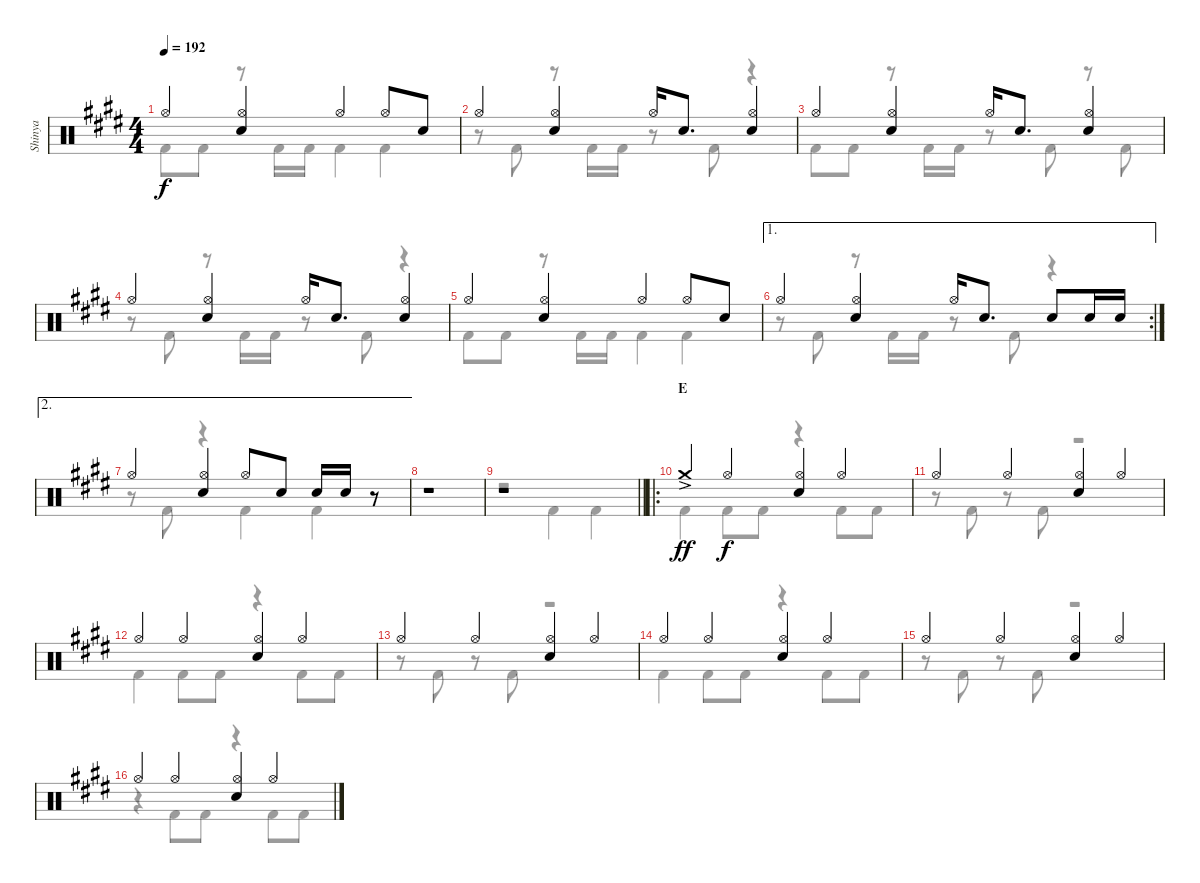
\track ("Shinya" "Shinya") {instrument percussion}
\staff {score}
\articulation defaults
\voice
\ts (4 4)
\tempo 192
\clef neutral
\ks c#minor "Hi-Hat (open)".4{dy f}
("Hi-Hat (open)" "Snare (hit) 2").4 "Hi-Hat (open)".4 "Hi-Hat (open)".8 "Snare (hit) 2".8 |
"Hi-Hat (open)".4 ("Hi-Hat (open)" "Snare (hit) 2").4 "Hi-Hat (open)".16 "Snare (hit) 2".8{d} ("Hi-Hat (open)" "Snare (hit) 2").4 |
"Hi-Hat (open)".4 ("Hi-Hat (open)" "Snare (hit) 2").4 "Hi-Hat (open)".16 "Snare (hit) 2".8{d} ("Hi-Hat (open)" "Snare (hit) 2").4 |
"Hi-Hat (open)".4 ("Hi-Hat (open)" "Snare (hit) 2").4 "Hi-Hat (open)".16 "Snare (hit) 2".8{d} ("Hi-Hat (open)" "Snare (hit) 2").4 |
"Hi-Hat (open)".4 ("Hi-Hat (open)" "Snare (hit) 2").4 "Hi-Hat (open)".4 "Hi-Hat (open)".8 "Snare (hit) 2".8 |
\ae 1
\rc 2 "Hi-Hat (open)".4
("Hi-Hat (open)" "Snare (hit) 2").4 "Hi-Hat (open)".16 "Snare (hit) 2".8{d} "Snare (hit) 2".8 "Snare (hit) 2".16 "Snare (hit) 2".16 |
\ae 2 "Hi-Hat (open)".4
("Hi-Hat (open)" "Snare (hit) 2").4 "Hi-Hat (open)".8 "Snare (hit) 2".8 "Snare (hit) 2".16 "Snare (hit) 2".16 r.8 |
r.1 |
\barLineRight lightlight
r.1 |
\ro
\section ("" "E")
"Crash medium (hit)"{ac}.4{dy ff} "Hi-Hat (open)".4{dy f} ("Hi-Hat (open)" "Snare (hit) 2").4 "Hi-Hat (open)".4 |
"Hi-Hat (open)".4 "Hi-Hat (open)".4 ("Hi-Hat (open)" "Snare (hit) 2").4 "Hi-Hat (open)".4 |
"Hi-Hat (open)".4 "Hi-Hat (open)".4 ("Hi-Hat (open)" "Snare (hit) 2").4 "Hi-Hat (open)".4 |
"Hi-Hat (open)".4 "Hi-Hat (open)".4 ("Hi-Hat (open)" "Snare (hit) 2").4 "Hi-Hat (open)".4 |
"Hi-Hat (open)".4 "Hi-Hat (open)".4 ("Hi-Hat (open)" "Snare (hit) 2").4 "Hi-Hat (open)".4 |
"Hi-Hat (open)".4 "Hi-Hat (open)".4 ("Hi-Hat (open)" "Snare (hit) 2").4 "Hi-Hat (open)".4 |
"Hi-Hat (open)".4 "Hi-Hat (open)".4 ("Hi-Hat (open)" "Snare (hit) 2").4 "Hi-Hat (open)".4
\voice
\clef neutral
\ottava regular
\simile none
\ks c#minor "Kick (hit) 2".8{dy f} "Kick (hit) 2".8
r.8 "Kick (hit) 2".16 "Kick (hit) 2".16 "Kick (hit) 2".4 "Kick (hit) 2".4 |
r.8 "Kick (hit) 2".8 r.8 "Kick (hit) 2".16 "Kick (hit) 2".16 r.8 "Kick (hit) 2".8 r.4 |
"Kick (hit) 2".8 "Kick (hit) 2".8 r.8 "Kick (hit) 2".16 "Kick (hit) 2".16 r.8 "Kick (hit) 2".8 r.8 "Kick (hit) 2".8 |
r.8 "Kick (hit) 2".8 r.8 "Kick (hit) 2".16 "Kick (hit) 2".16 r.8 "Kick (hit) 2".8 r.4 |
"Kick (hit) 2".8 "Kick (hit) 2".8 r.8 "Kick (hit) 2".16 "Kick (hit) 2".16 "Kick (hit) 2".4 "Kick (hit) 2".4 |
r.8 "Kick (hit) 2".8 r.8 "Kick (hit) 2".16 "Kick (hit) 2".16 r.8 "Kick (hit) 2".8 r.4 |
r.8 "Kick (hit) 2".8 r.4 "Kick (hit) 2".4 "Kick (hit) 2".4 |
r.1 |
\barLineRight lightlight
r.2 "Kick (hit) 2".4 "Kick (hit) 2".4 |
"Kick (hit) 2".4 "Kick (hit) 2".8 "Kick (hit) 2".8 r.4 "Kick (hit) 2".8 "Kick (hit) 2".8 |
r.8 "Kick (hit) 2".8 r.8 "Kick (hit) 2".8 r.2 |
"Kick (hit) 2".4 "Kick (hit) 2".8 "Kick (hit) 2".8 r.4 "Kick (hit) 2".8 "Kick (hit) 2".8 |
r.8 "Kick (hit) 2".8 r.8 "Kick (hit) 2".8 r.2 |
"Kick (hit) 2".4 "Kick (hit) 2".8 "Kick (hit) 2".8 r.4 "Kick (hit) 2".8 "Kick (hit) 2".8 |
r.8 "Kick (hit) 2".8 r.8 "Kick (hit) 2".8 r.2 |
r.4 "Kick (hit) 2".8 "Kick (hit) 2".8 r.4 "Kick (hit) 2".8 "Kick (hit) 2".8
